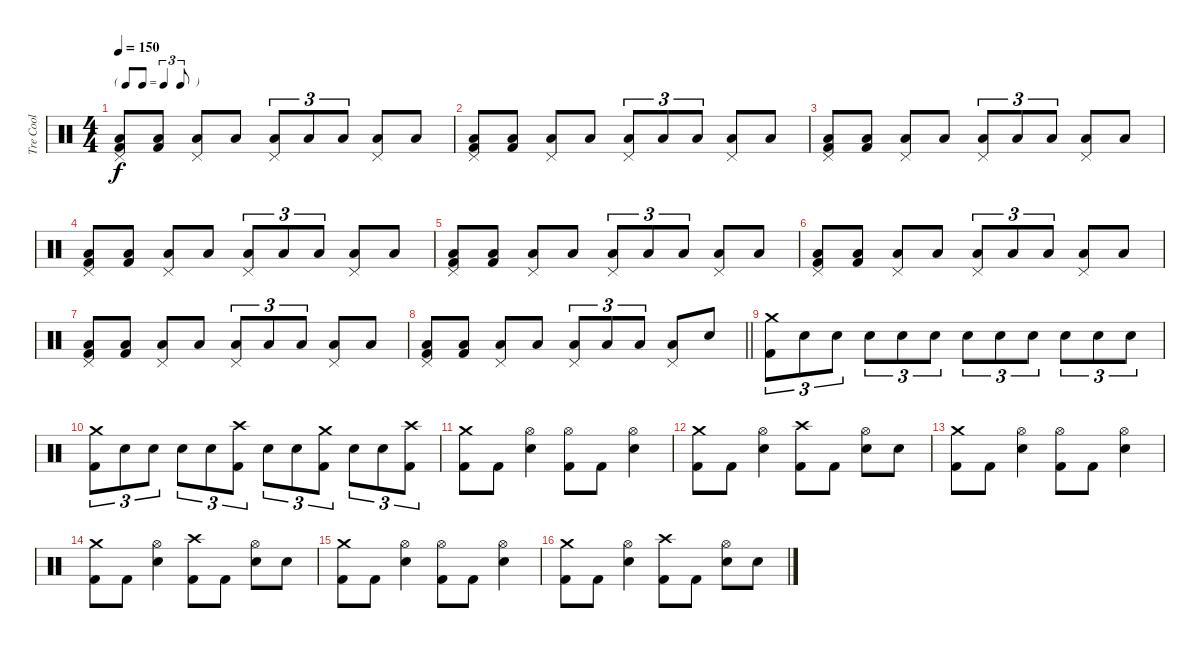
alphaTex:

\track ("Tre Cool" "Tre Cool") {instrument percussion}
\staff {score}
\articulation defaults
\ts (4 4)
\tf triplet8th
\tempo 150
\clef neutral
\ks c
("Pedal Hi-Hat (hit)" "Low Floor Tom (hit)" "Kick (hit) 2").8{dy f} ("Low Floor Tom (hit)" "Kick (hit) 2").8 ("Pedal Hi-Hat (hit)" "Low Tom (hit)").8 "Low Tom (hit)".8 ("Pedal Hi-Hat (hit)" "Low Floor Tom (hit)").8{tu (3 2)} "Low Floor Tom (hit)".8{tu (3 2)} "Low Floor Tom (hit)".8{tu (3 2)} ("Pedal Hi-Hat (hit)" "Low Tom (hit)").8 "Low Floor Tom (hit)".8 |
("Pedal Hi-Hat (hit)" "Low Floor Tom (hit)" "Kick (hit) 2").8 ("Low Floor Tom (hit)" "Kick (hit) 2").8 ("Pedal Hi-Hat (hit)" "Low Tom (hit)").8 "Low Floor Tom (hit)".8 ("Pedal Hi-Hat (hit)" "Low Floor Tom (hit)").8{tu (3 2)} "Low Floor Tom (hit)".8{tu (3 2)} "Low Floor Tom (hit)".8{tu (3 2)} ("Pedal Hi-Hat (hit)" "Low Tom (hit)").8 "Low Floor Tom (hit)".8 |
("Pedal Hi-Hat (hit)" "Low Floor Tom (hit)" "Kick (hit) 2").8 ("Low Floor Tom (hit)" "Kick (hit) 2").8 ("Pedal Hi-Hat (hit)" "Low Tom (hit)").8 "Low Tom (hit)".8 ("Pedal Hi-Hat (hit)" "Low Floor Tom (hit)").8{tu (3 2)} "Low Floor Tom (hit)".8{tu (3 2)} "Low Floor Tom (hit)".8{tu (3 2)} ("Pedal Hi-Hat (hit)" "Low Tom (hit)").8 "Low Floor Tom (hit)".8 |
("Pedal Hi-Hat (hit)" "Low Floor Tom (hit)" "Kick (hit) 2").8 ("Low Floor Tom (hit)" "Kick (hit) 2").8 ("Pedal Hi-Hat (hit)" "Low Tom (hit)").8 "Low Floor Tom (hit)".8 ("Pedal Hi-Hat (hit)" "Low Floor Tom (hit)").8{tu (3 2)} "Low Floor Tom (hit)".8{tu (3 2)} "Low Floor Tom (hit)".8{tu (3 2)} ("Pedal Hi-Hat (hit)" "Low Tom (hit)").8 "Low Floor Tom (hit)".8 |
("Pedal Hi-Hat (hit)" "Low Floor Tom (hit)" "Kick (hit) 2").8 ("Low Floor Tom (hit)" "Kick (hit) 2").8 ("Pedal Hi-Hat (hit)" "Low Tom (hit)").8 "Low Tom (hit)".8 ("Pedal Hi-Hat (hit)" "Low Floor Tom (hit)").8{tu (3 2)} "Low Floor Tom (hit)".8{tu (3 2)} "Low Floor Tom (hit)".8{tu (3 2)} ("Pedal Hi-Hat (hit)" "Low Tom (hit)").8 "Low Floor Tom (hit)".8 |
("Pedal Hi-Hat (hit)" "Low Floor Tom (hit)" "Kick (hit) 2").8 ("Low Floor Tom (hit)" "Kick (hit) 2").8 ("Pedal Hi-Hat (hit)" "Low Tom (hit)").8 "Low Floor Tom (hit)".8 ("Pedal Hi-Hat (hit)" "Low Floor Tom (hit)").8{tu (3 2)} "Low Floor Tom (hit)".8{tu (3 2)} "Low Floor Tom (hit)".8{tu (3 2)} ("Pedal Hi-Hat (hit)" "Low Tom (hit)").8 "Low Floor Tom (hit)".8 |
("Pedal Hi-Hat (hit)" "Low Floor Tom (hit)" "Kick (hit) 2").8 ("Low Floor Tom (hit)" "Kick (hit) 2").8 ("Pedal Hi-Hat (hit)" "Low Tom (hit)").8 "Low Tom (hit)".8 ("Pedal Hi-Hat (hit)" "Low Floor Tom (hit)").8{tu (3 2)} "Low Floor Tom (hit)".8{tu (3 2)} "Low Floor Tom (hit)".8{tu (3 2)} ("Pedal Hi-Hat (hit)" "Low Tom (hit)").8 "Low Floor Tom (hit)".8 |
\barLineRight lightlight
("Pedal Hi-Hat (hit)" "Low Floor Tom (hit)" "Kick (hit) 2").8 ("Low Floor Tom (hit)" "Kick (hit) 2").8 ("Pedal Hi-Hat (hit)" "Low Tom (hit)").8 "Low Floor Tom (hit)".8 ("Pedal Hi-Hat (hit)" "Low Floor Tom (hit)").8{tu (3 2)} "Low Floor Tom (hit)".8{tu (3 2)} "Low Floor Tom (hit)".8{tu (3 2)} ("Pedal Hi-Hat (hit)" "Low Tom (hit)").8 "Electric Snare (hit)".8 |
("Crash medium (hit)" "Kick (hit) 2").8{tu (3 2)} "Electric Snare (hit)".8{tu (3 2)} "Electric Snare (hit)".8{tu (3 2)} "Electric Snare (hit)".8{tu (3 2)} "Electric Snare (hit)".8{tu (3 2)} "Electric Snare (hit)".8{tu (3 2)} "Electric Snare (hit)".8{tu (3 2)} "Electric Snare (hit)".8{tu (3 2)} "Electric Snare (hit)".8{tu (3 2)} "Electric Snare (hit)".8{tu (3 2)} "Electric Snare (hit)".8{tu (3 2)} "Electric Snare (hit)".8{tu (3 2)} |
("Crash medium (hit)" "Kick (hit) 2").8{tu (3 2)} "Electric Snare (hit)".8{tu (3 2)} "Electric Snare (hit)".8{tu (3 2)} "Electric Snare (hit)".8{tu (3 2)} "Electric Snare (hit)".8{tu (3 2)} ("Crash high (hit)" "Kick (hit) 2").8{tu (3 2)} "Electric Snare (hit)".8{tu (3 2)} "Electric Snare (hit)".8{tu (3 2)} ("Crash medium (hit)" "Kick (hit) 2").8{tu (3 2)} "Electric Snare (hit)".8{tu (3 2)} "Electric Snare (hit)".8{tu (3 2)} ("Crash high (hit)" "Kick (hit) 2").8{tu (3 2)} |
("Crash medium (hit)" "Kick (hit) 2").8 "Kick (hit) 2".8 ("Hi-Hat (open)" "Electric Snare (hit)").4 ("Hi-Hat (open)" "Kick (hit) 2").8 "Kick (hit) 2".8 ("Hi-Hat (open)" "Electric Snare (hit)").4 |
("Crash medium (hit)" "Kick (hit) 2").8 "Kick (hit) 2".8 ("Hi-Hat (open)" "Electric Snare (hit)").4 ("Crash high (hit)" "Kick (hit) 2").8 "Kick (hit) 2".8 ("Hi-Hat (open)" "Electric Snare (hit)").8 "Electric Snare (hit)".8 |
("Crash medium (hit)" "Kick (hit) 2").8 "Kick (hit) 2".8 ("Hi-Hat (open)" "Electric Snare (hit)").4 ("Hi-Hat (open)" "Kick (hit) 2").8 "Kick (hit) 2".8 ("Hi-Hat (open)" "Electric Snare (hit)").4 |
("Crash medium (hit)" "Kick (hit) 2").8 "Kick (hit) 2".8 ("Hi-Hat (open)" "Electric Snare (hit)").4 ("Crash high (hit)" "Kick (hit) 2").8 "Kick (hit) 2".8 ("Hi-Hat (open)" "Electric Snare (hit)").8 "Electric Snare (hit)".8 |
("Crash medium (hit)" "Kick (hit) 2").8 "Kick (hit) 2".8 ("Hi-Hat (open)" "Electric Snare (hit)").4 ("Hi-Hat (open)" "Kick (hit) 2").8 "Kick (hit) 2".8 ("Hi-Hat (open)" "Electric Snare (hit)").4 |
("Crash medium (hit)" "Kick (hit) 2").8 "Kick (hit) 2".8 ("Hi-Hat (open)" "Electric Snare (hit)").4 ("Crash high (hit)" "Kick (hit) 2").8 "Kick (hit) 2".8 ("Hi-Hat (open)" "Electric Snare (hit)").8 "Electric Snare (hit)".8
